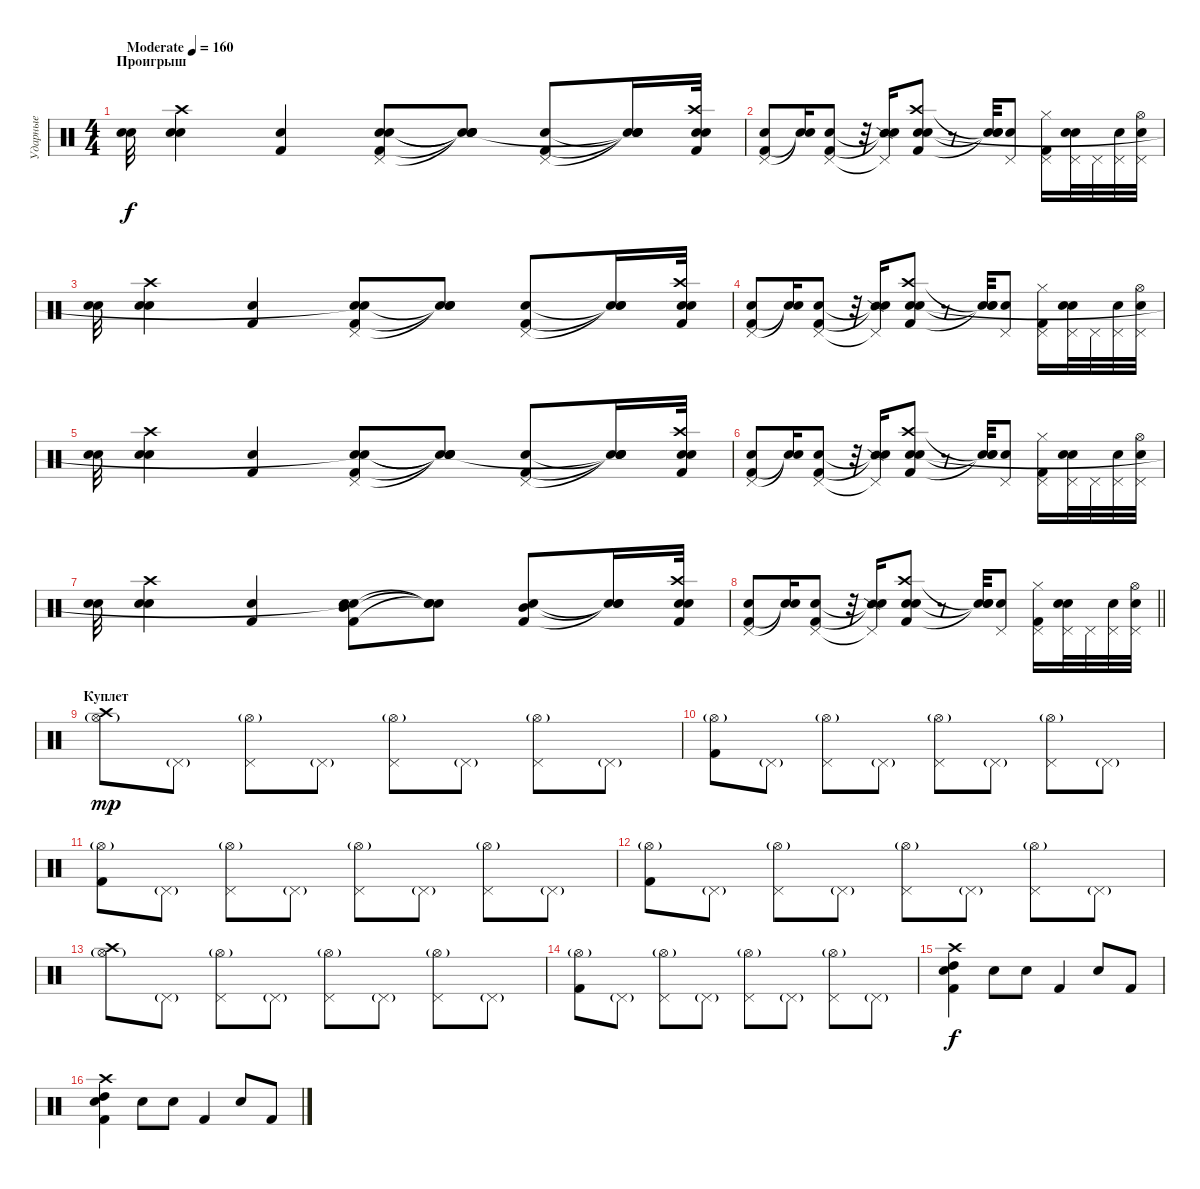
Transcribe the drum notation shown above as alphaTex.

\track ("Ударные" "Ударные") {instrument percussion}
\staff {score}
\articulation defaults
\ts (4 4)
\section ("" "Проигрыш")
\tempo (160 "Moderate")
\clef neutral
\ks c
("Snare (hit) 2" "Electric Snare (hit)").32{dy f} ("Snare (hit) 2" "Electric Snare (hit)" "Crash high (hit)").4 ("Electric Snare (hit)" "Kick (hit) 2").4 ("Pedal Hi-Hat (hit)" "Kick (hit) 2" "Electric Snare (hit)" "Snare (hit)").8 ("Snare (hit)"{t} "Snare (hit)"{t} "Snare (hit)"{t} "Snare (hit)"{t}).8 ("Pedal Hi-Hat (hit)" "Kick (hit) 2" "Electric Snare (hit)").8 ("Snare (hit)"{t} "Snare (hit)"{t} "Snare (hit)"{t} "Snare (hit)"{t}).16 ("Kick (hit) 2" "Electric Snare (hit)" "Crash high (hit)" "Snare (hit) 2").32 |
("Kick (hit) 2" "Pedal Hi-Hat (hit)" "Snare (hit) 2").8 ("Snare (hit)"{t} "Snare (hit)"{t}).16 ("Kick (hit) 2" "Pedal Hi-Hat (hit)" "Electric Snare (hit)").8 r.32 ("Snare (side stick) 2"{t} "Pedal Hi-Hat (hit)"{t} "Snare (hit)"{t}).16 ("Kick (hit) 2" "Crash high (hit)" "Electric Snare (hit)" "Snare (hit) 2").8 r.8 ("Snare (hit)"{t} "Snare (hit)"{t} "Snare (hit)"{t}).32 ("Electric Snare (hit)" "Pedal Hi-Hat (hit)").8 ("Hi-Hat (closed)" "Pedal Hi-Hat (hit)" "Kick (hit) 2").16 ("Electric Snare (hit)" "Pedal Hi-Hat (hit)" "Snare (hit) 2").32 "Pedal Hi-Hat (hit)".32 ("Electric Snare (hit)" "Pedal Hi-Hat (hit)").32 ("Snare (hit) 2" "Pedal Hi-Hat (hit)" "Hi-Hat (open)").32 |
("Snare (hit) 2" "Electric Snare (hit)").32 ("Snare (hit) 2" "Electric Snare (hit)" "Crash high (hit)").4 ("Electric Snare (hit)" "Kick (hit) 2").4 ("Pedal Hi-Hat (hit)" "Kick (hit) 2" "Electric Snare (hit)" "Snare (hit)"{t}).8 ("Snare (hit)"{t} "Snare (hit)"{t} "Snare (hit)"{t}).8 ("Pedal Hi-Hat (hit)" "Kick (hit) 2" "Electric Snare (hit)").8 ("Snare (hit)"{t} "Snare (hit)"{t} "Snare (hit)"{t}).16 ("Kick (hit) 2" "Electric Snare (hit)" "Crash high (hit)" "Snare (hit) 2").32 |
("Kick (hit) 2" "Pedal Hi-Hat (hit)" "Snare (hit) 2").8 ("Snare (hit)"{t} "Snare (hit)"{t}).16 ("Kick (hit) 2" "Pedal Hi-Hat (hit)" "Electric Snare (hit)").8 r.32 ("Snare (side stick) 2"{t} "Pedal Hi-Hat (hit)"{t} "Snare (hit)"{t}).16 ("Kick (hit) 2" "Crash high (hit)" "Electric Snare (hit)" "Snare (hit) 2").8 r.8 ("Snare (hit)"{t} "Snare (hit)"{t} "Snare (hit)"{t}).32 ("Electric Snare (hit)" "Pedal Hi-Hat (hit)").8 ("Hi-Hat (closed)" "Pedal Hi-Hat (hit)" "Kick (hit) 2").16 ("Electric Snare (hit)" "Pedal Hi-Hat (hit)" "Snare (hit) 2").32 "Pedal Hi-Hat (hit)".32 ("Electric Snare (hit)" "Pedal Hi-Hat (hit)").32 ("Snare (hit) 2" "Pedal Hi-Hat (hit)" "Hi-Hat (open)").32 |
("Snare (hit) 2" "Electric Snare (hit)").32 ("Snare (hit) 2" "Electric Snare (hit)" "Crash high (hit)").4 ("Electric Snare (hit)" "Kick (hit) 2").4 ("Pedal Hi-Hat (hit)" "Kick (hit) 2" "Electric Snare (hit)" "Snare (hit)"{t}).8 ("Snare (hit)"{t} "Snare (hit)"{t} "Snare (hit)"{t} "Snare (hit)"{t}).8 ("Pedal Hi-Hat (hit)" "Kick (hit) 2" "Electric Snare (hit)").8 ("Snare (hit)"{t} "Snare (hit)"{t} "Snare (hit)"{t} "Snare (hit)"{t}).16 ("Kick (hit) 2" "Electric Snare (hit)" "Crash high (hit)" "Snare (hit) 2").32 |
("Kick (hit) 2" "Pedal Hi-Hat (hit)" "Snare (hit) 2").8 ("Snare (hit)"{t} "Snare (hit)"{t}).16 ("Kick (hit) 2" "Pedal Hi-Hat (hit)" "Electric Snare (hit)").8 r.32 ("Snare (side stick) 2"{t} "Pedal Hi-Hat (hit)"{t} "Snare (hit)"{t}).16 ("Kick (hit) 2" "Crash high (hit)" "Electric Snare (hit)" "Snare (hit) 2").8 r.8 ("Snare (hit)"{t} "Snare (hit)"{t} "Snare (hit)"{t}).32 ("Electric Snare (hit)" "Pedal Hi-Hat (hit)").8 ("Hi-Hat (closed)" "Pedal Hi-Hat (hit)" "Kick (hit) 2").16 ("Electric Snare (hit)" "Pedal Hi-Hat (hit)" "Snare (hit) 2").32 "Pedal Hi-Hat (hit)".32 ("Electric Snare (hit)" "Pedal Hi-Hat (hit)").32 ("Snare (hit) 2" "Pedal Hi-Hat (hit)" "Hi-Hat (open)").32 |
("Snare (hit) 2" "Electric Snare (hit)").32 ("Snare (hit) 2" "Electric Snare (hit)" "Crash high (hit)").4 ("Electric Snare (hit)" "Kick (hit) 2").4 ("Mid Tom (hit)" "Kick (hit) 2" "Electric Snare (hit)" "Snare (hit)"{t}).8 ("Snare (hit)"{t} "Snare (hit)"{t} "Snare (hit)"{t}).8 ("Mid Tom (hit)" "Kick (hit) 2" "Electric Snare (hit)").8 ("Snare (hit)"{t} "Snare (hit)"{t} "Snare (hit)"{t}).16 ("Kick (hit) 2" "Electric Snare (hit)" "Crash high (hit)" "Snare (hit) 2").32 |
\barLineRight lightlight
("Kick (hit) 2" "Pedal Hi-Hat (hit)" "Snare (hit) 2").8 ("Snare (hit)"{t} "Snare (hit)"{t}).16 ("Kick (hit) 2" "Pedal Hi-Hat (hit)" "Electric Snare (hit)").8 r.32 ("Snare (side stick) 2"{t} "Pedal Hi-Hat (hit)"{t} "Snare (hit)"{t}).16 ("Kick (hit) 2" "Crash high (hit)" "Electric Snare (hit)" "Snare (hit) 2").8 r.8 ("Snare (hit)"{t} "Snare (hit)"{t} "Snare (hit)"{t}).32 ("Electric Snare (hit)" "Pedal Hi-Hat (hit)").8 ("Hi-Hat (closed)" "Pedal Hi-Hat (hit)" "Kick (hit) 2").16 ("Electric Snare (hit)" "Pedal Hi-Hat (hit)" "Snare (hit) 2").32 "Pedal Hi-Hat (hit)".32 ("Electric Snare (hit)" "Pedal Hi-Hat (hit)").32 ("Snare (hit) 2" "Pedal Hi-Hat (hit)" "Hi-Hat (open)").32 |
\section ("" "Куплет")
("Crash high (hit)" "Hi-Hat (open)"{g}).8{dy mp} "Pedal Hi-Hat (hit)"{g}.8 ("Pedal Hi-Hat (hit)" "Hi-Hat (open)"{g}).8 "Pedal Hi-Hat (hit)"{g}.8 ("Pedal Hi-Hat (hit)" "Hi-Hat (open)"{g}).8 "Pedal Hi-Hat (hit)"{g}.8 ("Pedal Hi-Hat (hit)" "Hi-Hat (open)"{g}).8 "Pedal Hi-Hat (hit)"{g}.8 |
("Kick (hit) 2" "Hi-Hat (open)"{g}).8 "Pedal Hi-Hat (hit)"{g}.8 ("Pedal Hi-Hat (hit)" "Hi-Hat (open)"{g}).8 "Pedal Hi-Hat (hit)"{g}.8 ("Pedal Hi-Hat (hit)" "Hi-Hat (open)"{g}).8 "Pedal Hi-Hat (hit)"{g}.8 ("Pedal Hi-Hat (hit)" "Hi-Hat (open)"{g}).8 "Pedal Hi-Hat (hit)"{g}.8 |
("Kick (hit) 2" "Hi-Hat (open)"{g}).8 "Pedal Hi-Hat (hit)"{g}.8 ("Pedal Hi-Hat (hit)" "Hi-Hat (open)"{g}).8 "Pedal Hi-Hat (hit)"{g}.8 ("Pedal Hi-Hat (hit)" "Hi-Hat (open)"{g}).8 "Pedal Hi-Hat (hit)"{g}.8 ("Pedal Hi-Hat (hit)" "Hi-Hat (open)"{g}).8 "Pedal Hi-Hat (hit)"{g}.8 |
("Kick (hit) 2" "Hi-Hat (open)"{g}).8 "Pedal Hi-Hat (hit)"{g}.8 ("Pedal Hi-Hat (hit)" "Hi-Hat (open)"{g}).8 "Pedal Hi-Hat (hit)"{g}.8 ("Pedal Hi-Hat (hit)" "Hi-Hat (open)"{g}).8 "Pedal Hi-Hat (hit)"{g}.8 ("Pedal Hi-Hat (hit)" "Hi-Hat (open)"{g}).8 "Pedal Hi-Hat (hit)"{g}.8 |
("Crash high (hit)" "Hi-Hat (open)"{g}).8 "Pedal Hi-Hat (hit)"{g}.8 ("Pedal Hi-Hat (hit)" "Hi-Hat (open)"{g}).8 "Pedal Hi-Hat (hit)"{g}.8 ("Pedal Hi-Hat (hit)" "Hi-Hat (open)"{g}).8 "Pedal Hi-Hat (hit)"{g}.8 ("Pedal Hi-Hat (hit)" "Hi-Hat (open)"{g}).8 "Pedal Hi-Hat (hit)"{g}.8 |
("Kick (hit) 2" "Hi-Hat (open)"{g}).8 "Pedal Hi-Hat (hit)"{g}.8 ("Pedal Hi-Hat (hit)" "Hi-Hat (open)"{g}).8 "Pedal Hi-Hat (hit)"{g}.8 ("Pedal Hi-Hat (hit)" "Hi-Hat (open)"{g}).8 "Pedal Hi-Hat (hit)"{g}.8 ("Pedal Hi-Hat (hit)" "Hi-Hat (open)"{g}).8 "Pedal Hi-Hat (hit)"{g}.8 |
("Kick (hit) 2" "High Tom (hit)" "Electric Snare (hit)" "Crash high (hit)").4{dy f} "Electric Snare (hit)".8 "Electric Snare (hit)".8 "Kick (hit) 2".4 "Electric Snare (hit)".8 "Kick (hit) 2".8 |
("Kick (hit) 2" "High Tom (hit)" "Electric Snare (hit)" "Crash high (hit)").4 "Electric Snare (hit)".8 "Electric Snare (hit)".8 "Kick (hit) 2".4 "Electric Snare (hit)".8 "Kick (hit) 2".8
